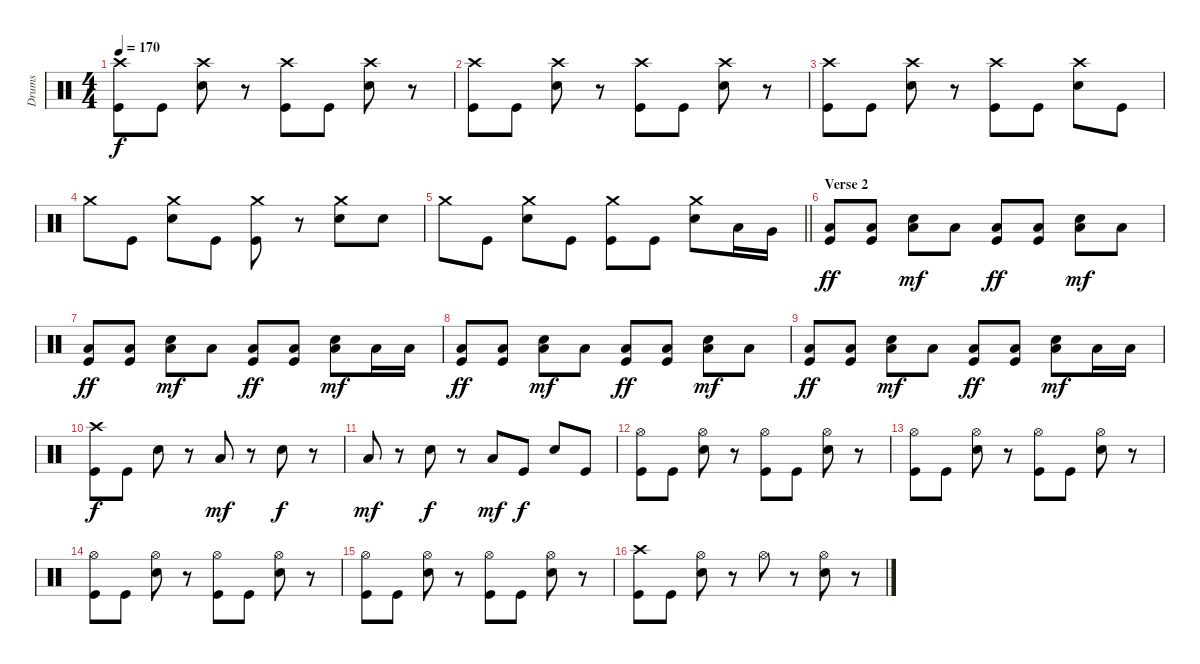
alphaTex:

\track ("Drums" "Drums") {instrument percussion}
\staff {score}
\articulation defaults
\ts (4 4)
\tempo 170
\clef neutral
\ks c
("Crash high (hit)" "Kick (hit)").8{dy f} "Kick (hit)".8 ("Crash high (hit)" "Snare (hit) 2").8 r.8 ("Crash high (hit)" "Kick (hit)").8 "Kick (hit)".8 ("Crash high (hit)" "Snare (hit) 2").8 r.8 |
("Crash high (hit)" "Kick (hit)").8 "Kick (hit)".8 ("Crash high (hit)" "Snare (hit) 2").8 r.8 ("Crash high (hit)" "Kick (hit)").8 "Kick (hit)".8 ("Crash high (hit)" "Snare (hit) 2").8 r.8 |
("Crash high (hit)" "Kick (hit)").8 "Kick (hit)".8 ("Crash high (hit)" "Snare (hit) 2").8 r.8 ("Crash high (hit)" "Kick (hit)").8 "Kick (hit)".8 ("Crash high (hit)" "Snare (hit) 2").8 "Kick (hit)".8 |
"Crash medium (hit)".8 "Kick (hit)".8 ("Crash medium (hit)" "Snare (hit) 2").8 "Kick (hit)".8 ("Crash medium (hit)" "Kick (hit)").8 r.8 ("Crash medium (hit)" "Snare (hit) 2").8 "Snare (hit) 2".8 |
\barLineRight lightlight "Crash medium (hit)".8 "Kick (hit)".8
("Crash medium (hit)" "Snare (hit) 2").8 "Kick (hit)".8 ("Crash medium (hit)" "Kick (hit)").8 "Kick (hit)".8 ("Crash medium (hit)" "Snare (hit) 2").8 "Low Tom (hit)".16 "Very Low Tom (hit)".16 |
\section ("" "Verse 2")
("Low Floor Tom (hit)" "Kick (hit)").8{dy ff} ("Low Floor Tom (hit)" "Kick (hit)").8 ("Snare (hit) 2" "Low Floor Tom (hit)").8{dy mf} "Low Floor Tom (hit)".8 ("Low Floor Tom (hit)" "Kick (hit)").8{dy ff} ("Low Floor Tom (hit)" "Kick (hit)").8 ("Snare (hit) 2" "Low Floor Tom (hit)").8{dy mf} "Low Floor Tom (hit)".8 |
("Low Floor Tom (hit)" "Kick (hit)").8{dy ff} ("Low Floor Tom (hit)" "Kick (hit)").8 ("Snare (hit) 2" "Low Floor Tom (hit)").8{dy mf} "Low Floor Tom (hit)".8 ("Low Floor Tom (hit)" "Kick (hit)").8{dy ff} ("Low Floor Tom (hit)" "Kick (hit)").8 ("Snare (hit) 2" "Low Floor Tom (hit)").8{dy mf} "Low Floor Tom (hit)".16 "Low Floor Tom (hit)".16 |
("Low Floor Tom (hit)" "Kick (hit)").8{dy ff} ("Low Floor Tom (hit)" "Kick (hit)").8 ("Snare (hit) 2" "Low Floor Tom (hit)").8{dy mf} "Low Floor Tom (hit)".8 ("Low Floor Tom (hit)" "Kick (hit)").8{dy ff} ("Low Floor Tom (hit)" "Kick (hit)").8 ("Snare (hit) 2" "Low Floor Tom (hit)").8{dy mf} "Low Floor Tom (hit)".8 |
("Low Floor Tom (hit)" "Kick (hit)").8{dy ff} ("Low Floor Tom (hit)" "Kick (hit)").8 ("Snare (hit) 2" "Low Floor Tom (hit)").8{dy mf} "Low Floor Tom (hit)".8 ("Low Floor Tom (hit)" "Kick (hit)").8{dy ff} ("Low Floor Tom (hit)" "Kick (hit)").8 ("Snare (hit) 2" "Low Floor Tom (hit)").8{dy mf} "Low Floor Tom (hit)".16 "Low Floor Tom (hit)".16 |
("Crash high (hit)" "Kick (hit)").8{dy f} "Kick (hit)".8 "Snare (hit) 2".8 r.8 "Low Floor Tom (hit)".8{dy mf} r.8 "Snare (hit) 2".8{dy f} r.8 |
"Low Floor Tom (hit)".8{dy mf} r.8 "Snare (hit) 2".8{dy f} r.8 "Low Floor Tom (hit)".8{dy mf} "Kick (hit)".8{dy f} "Snare (hit) 2".8 "Kick (hit)".8 |
("Hi-Hat (open)" "Kick (hit)").8 "Kick (hit)".8 ("Hi-Hat (open)" "Snare (hit) 2").8 r.8 ("Hi-Hat (open)" "Kick (hit)").8 "Kick (hit)".8 ("Hi-Hat (open)" "Snare (hit) 2").8 r.8 |
("Hi-Hat (open)" "Kick (hit)").8 "Kick (hit)".8 ("Hi-Hat (open)" "Snare (hit) 2").8 r.8 ("Hi-Hat (open)" "Kick (hit)").8 "Kick (hit)".8 ("Hi-Hat (open)" "Snare (hit) 2").8 r.8 |
("Hi-Hat (open)" "Kick (hit)").8 "Kick (hit)".8 ("Hi-Hat (open)" "Snare (hit) 2").8 r.8 ("Hi-Hat (open)" "Kick (hit)").8 "Kick (hit)".8 ("Hi-Hat (open)" "Snare (hit) 2").8 r.8 |
("Hi-Hat (open)" "Kick (hit)").8 "Kick (hit)".8 ("Hi-Hat (open)" "Snare (hit) 2").8 r.8 ("Hi-Hat (open)" "Kick (hit)").8 "Kick (hit)".8 ("Hi-Hat (open)" "Snare (hit) 2").8 r.8 |
("Crash high (hit)" "Kick (hit)").8 "Kick (hit)".8 ("Hi-Hat (open)" "Snare (hit) 2").8 r.8 "Hi-Hat (open)".8 r.8 ("Hi-Hat (open)" "Snare (hit) 2").8 r.8
